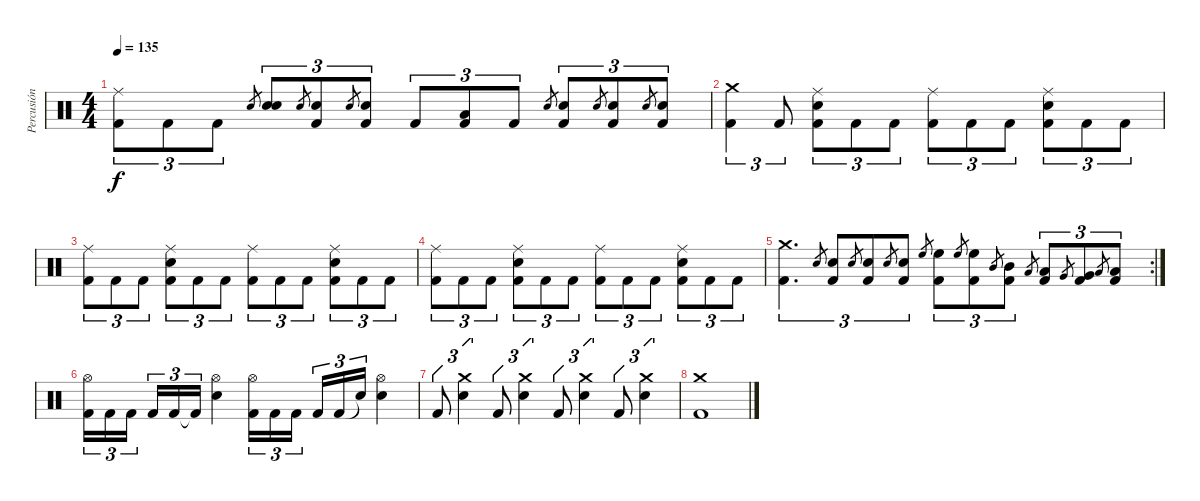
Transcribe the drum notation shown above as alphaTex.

\track ("Percusión" "Percusión") {instrument percussion}
\staff {score}
\articulation defaults
\ts (4 4)
\tempo 135
\clef neutral
\ks c
("Ride (middle)" "Kick (hit) 2").8{tu (3 2) dy f} "Kick (hit) 2".8{tu (3 2)} "Kick (hit) 2".8{tu (3 2)} "Snare (hit) 2".8{gr} ("Snare (hit) 2" "Snare (hit) 2").8{tu (3 2)} "Snare (hit) 2".8{gr} ("Snare (hit) 2" "Kick (hit) 2").8{tu (3 2)} "Snare (hit) 2".8{gr} ("Snare (hit) 2" "Kick (hit) 2").8{tu (3 2)} "Kick (hit) 2".8{tu (3 2)} ("Kick (hit) 2" "Low Tom (hit)").8{tu (3 2)} "Kick (hit) 2".8{tu (3 2)} "Snare (hit) 2".8{gr} ("Snare (hit) 2" "Kick (hit) 2").8{tu (3 2)} "Snare (hit) 2".8{gr} ("Snare (hit) 2" "Kick (hit) 2").8{tu (3 2)} "Snare (hit) 2".8{gr} ("Snare (hit) 2" "Kick (hit) 2").8{tu (3 2)} |
("Crash medium (hit)" "Kick (hit) 2").4{tu (3 2)} "Kick (hit) 2".8{tu (3 2)} ("Ride (middle)" "Kick (hit) 2" "Snare (hit) 2").8{tu (3 2)} "Kick (hit) 2".8{tu (3 2)} "Kick (hit) 2".8{tu (3 2)} ("Ride (middle)" "Kick (hit) 2").8{tu (3 2)} "Kick (hit) 2".8{tu (3 2)} "Kick (hit) 2".8{tu (3 2)} ("Ride (middle)" "Kick (hit) 2" "Snare (hit) 2").8{tu (3 2)} "Kick (hit) 2".8{tu (3 2)} "Kick (hit) 2".8{tu (3 2)} |
("Ride (middle)" "Kick (hit) 2").8{tu (3 2)} "Kick (hit) 2".8{tu (3 2)} "Kick (hit) 2".8{tu (3 2)} ("Ride (middle)" "Snare (hit) 2" "Kick (hit) 2").8{tu (3 2)} "Kick (hit) 2".8{tu (3 2)} "Kick (hit) 2".8{tu (3 2)} ("Ride (middle)" "Kick (hit) 2").8{tu (3 2)} "Kick (hit) 2".8{tu (3 2)} "Kick (hit) 2".8{tu (3 2)} ("Ride (middle)" "Snare (hit) 2" "Kick (hit) 2").8{tu (3 2)} "Kick (hit) 2".8{tu (3 2)} "Kick (hit) 2".8{tu (3 2)} |
("Ride (middle)" "Kick (hit) 2").8{tu (3 2)} "Kick (hit) 2".8{tu (3 2)} "Kick (hit) 2".8{tu (3 2)} ("Ride (middle)" "Snare (hit) 2" "Kick (hit) 2").8{tu (3 2)} "Kick (hit) 2".8{tu (3 2)} "Kick (hit) 2".8{tu (3 2)} ("Ride (middle)" "Kick (hit) 2").8{tu (3 2)} "Kick (hit) 2".8{tu (3 2)} "Kick (hit) 2".8{tu (3 2)} ("Ride (middle)" "Snare (hit) 2" "Kick (hit) 2").8{tu (3 2)} "Kick (hit) 2".8{tu (3 2)} "Kick (hit) 2".8{tu (3 2)} |
\rc 2
("Crash medium (hit)" "Kick (hit) 2").4{d tu (3 2)} "Snare (hit) 2".8{gr} ("Kick (hit) 2" "Snare (hit) 2").8{tu (3 2)} "Snare (hit) 2".8{gr} ("Kick (hit) 2" "Snare (hit) 2").8{tu (3 2)} "Snare (hit) 2".8{gr} ("Kick (hit) 2" "Snare (hit) 2").8{tu (3 2)} "High Floor Tom (hit)".8{gr} ("Kick (hit) 2" "High Floor Tom (hit)").8{tu (3 2)} "High Floor Tom (hit)".8{gr} ("Kick (hit) 2" "High Floor Tom (hit)").8{tu (3 2)} "Mid Tom (hit)".8{gr} ("Kick (hit) 2" "Mid Tom (hit)").8{tu (3 2)} "Low Tom (hit)".8{gr} ("Kick (hit) 2" "Low Tom (hit)").8{tu (3 2)} "Very Low Tom (hit)".8{gr} ("Kick (hit) 2" "Very Low Tom (hit)").8{tu (3 2)} "Low Floor Tom (hit)".8{gr} ("Kick (hit) 2" "Low Floor Tom (hit)").8{tu (3 2)} |
("Hi-Hat (open)" "Kick (hit) 2").16{tu (3 2)} "Kick (hit) 2".16{tu (3 2)} "Kick (hit) 2".16{tu (3 2) beam splitsecondary} "Kick (hit) 2".16{tu (3 2)} "Kick (hit) 2".16{tu (3 2)} "Kick (hit) 2"{t}.16{tu (3 2)} ("Hi-Hat (open)" "Snare (hit) 2").4 ("Hi-Hat (open)" "Kick (hit) 2").16{tu (3 2)} "Kick (hit) 2".16{tu (3 2)} "Kick (hit) 2".16{tu (3 2) beam splitsecondary} "Kick (hit) 2".16{tu (3 2)} "Kick (hit) 2".16{tu (3 2)} "Snare (hit)"{t}.16{tu (3 2)} ("Hi-Hat (open)" "Snare (hit) 2").4 |
"Kick (hit) 2".8{tu (3 2)} ("Crash medium (hit)" "Snare (hit) 2").4{tu (3 2)} "Kick (hit) 2".8{tu (3 2)} ("Crash medium (hit)" "Snare (hit) 2").4{tu (3 2)} "Kick (hit) 2".8{tu (3 2)} ("Crash medium (hit)" "Snare (hit) 2").4{tu (3 2)} "Kick (hit) 2".8{tu (3 2)} ("Crash medium (hit)" "Snare (hit) 2").4{tu (3 2)} |
("Crash medium (hit)" "Kick (hit) 2").1
